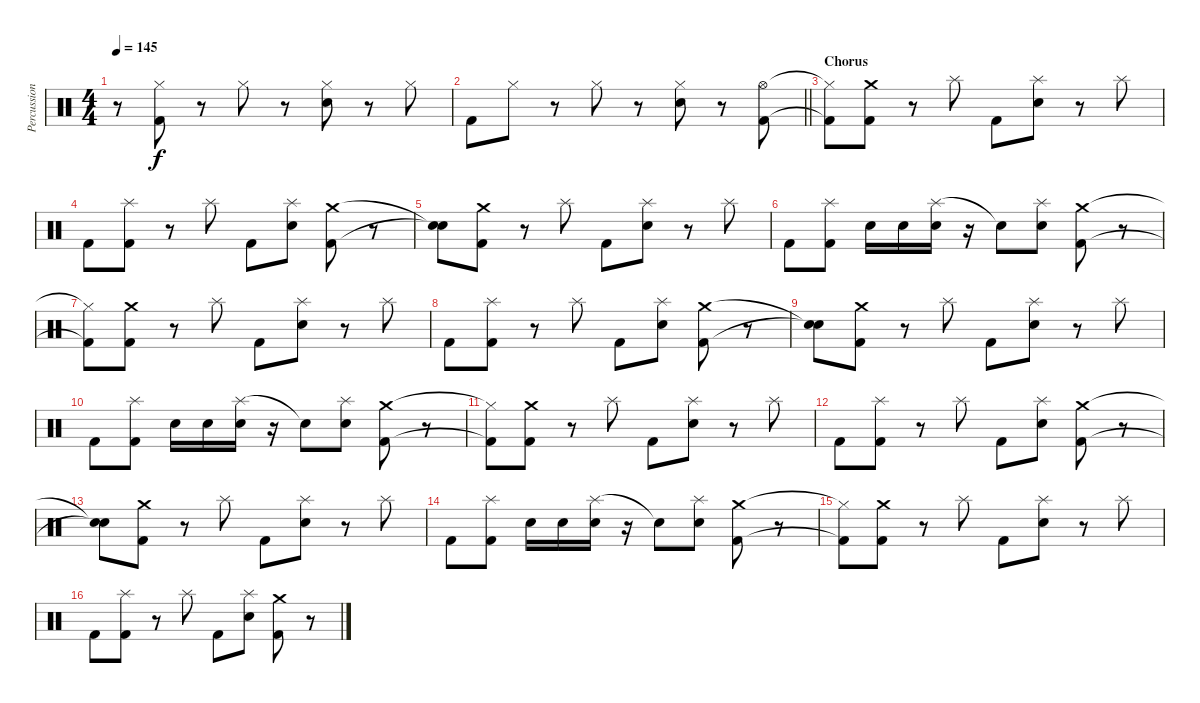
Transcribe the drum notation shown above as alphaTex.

\track ("Percussion" "Percussion") {instrument percussion}
\staff {score}
\articulation defaults
\ts (4 4)
\tempo 145
\clef neutral
\ks c
r.8{dy f} ("Hi-Hat (closed)" "Kick (hit) 2").8 r.8 "Hi-Hat (closed)".8 r.8 ("Hi-Hat (closed)" "Electric Snare (hit)").8 r.8 "Hi-Hat (closed)".8 |
\barLineRight lightlight "Kick (hit) 2".8 "Hi-Hat (closed)".8
r.8 "Hi-Hat (closed)".8 r.8 ("Hi-Hat (closed)" "Electric Snare (hit)").8 r.8 ("Hi-Hat (open)" "Kick (hit) 2").8 |
\section ("" "Chorus")
("Hi-Hat (closed)"{t} "Kick (hit) 2"{t}).8 ("Crash medium (hit)" "Kick (hit) 2").8 r.8 "Splash (hit)".8 "Kick (hit) 2".8 ("Splash (hit)" "Electric Snare (hit)").8 r.8 "Splash (hit)".8 |
"Kick (hit) 2".8 ("Splash (hit)" "Kick (hit) 2").8 r.8 "Splash (hit)".8 "Kick (hit) 2".8 ("Splash (hit)" "Electric Snare (hit)").8 ("Crash medium (hit)" "Kick (hit) 2").8 r.8 |
("Snare (hit)"{t} "Snare (hit)"{t}).8 ("Crash medium (hit)" "Kick (hit) 2").8 r.8 "Splash (hit)".8 "Kick (hit) 2".8 ("Splash (hit)" "Electric Snare (hit)").8 r.8 "Splash (hit)".8 |
"Kick (hit) 2".8 ("Splash (hit)" "Kick (hit) 2").8 "Electric Snare (hit)".16 "Electric Snare (hit)".16 ("Splash (hit)" "Electric Snare (hit)").16 r.16 "Snare (hit)"{t}.8 ("Splash (hit)" "Electric Snare (hit)").8 ("Crash medium (hit)" "Kick (hit) 2").8 r.8 |
("Hi-Hat (closed)"{t} "Kick (hit) 2"{t}).8 ("Crash medium (hit)" "Kick (hit) 2").8 r.8 "Splash (hit)".8 "Kick (hit) 2".8 ("Splash (hit)" "Electric Snare (hit)").8 r.8 "Splash (hit)".8 |
"Kick (hit) 2".8 ("Splash (hit)" "Kick (hit) 2").8 r.8 "Splash (hit)".8 "Kick (hit) 2".8 ("Splash (hit)" "Electric Snare (hit)").8 ("Crash medium (hit)" "Kick (hit) 2").8 r.8 |
("Snare (hit)"{t} "Snare (hit)"{t}).8 ("Crash medium (hit)" "Kick (hit) 2").8 r.8 "Splash (hit)".8 "Kick (hit) 2".8 ("Splash (hit)" "Electric Snare (hit)").8 r.8 "Splash (hit)".8 |
"Kick (hit) 2".8 ("Splash (hit)" "Kick (hit) 2").8 "Electric Snare (hit)".16 "Electric Snare (hit)".16 ("Splash (hit)" "Electric Snare (hit)").16 r.16 "Snare (hit)"{t}.8 ("Splash (hit)" "Electric Snare (hit)").8 ("Crash medium (hit)" "Kick (hit) 2").8 r.8 |
("Hi-Hat (closed)"{t} "Kick (hit) 2"{t}).8 ("Crash medium (hit)" "Kick (hit) 2").8 r.8 "Splash (hit)".8 "Kick (hit) 2".8 ("Splash (hit)" "Electric Snare (hit)").8 r.8 "Splash (hit)".8 |
"Kick (hit) 2".8 ("Splash (hit)" "Kick (hit) 2").8 r.8 "Splash (hit)".8 "Kick (hit) 2".8 ("Splash (hit)" "Electric Snare (hit)").8 ("Crash medium (hit)" "Kick (hit) 2").8 r.8 |
("Snare (hit)"{t} "Snare (hit)"{t}).8 ("Crash medium (hit)" "Kick (hit) 2").8 r.8 "Splash (hit)".8 "Kick (hit) 2".8 ("Splash (hit)" "Electric Snare (hit)").8 r.8 "Splash (hit)".8 |
"Kick (hit) 2".8 ("Splash (hit)" "Kick (hit) 2").8 "Electric Snare (hit)".16 "Electric Snare (hit)".16 ("Splash (hit)" "Electric Snare (hit)").16 r.16 "Snare (hit)"{t}.8 ("Splash (hit)" "Electric Snare (hit)").8 ("Crash medium (hit)" "Kick (hit) 2").8 r.8 |
("Hi-Hat (closed)"{t} "Kick (hit) 2"{t}).8 ("Crash medium (hit)" "Kick (hit) 2").8 r.8 "Splash (hit)".8 "Kick (hit) 2".8 ("Splash (hit)" "Electric Snare (hit)").8 r.8 "Splash (hit)".8 |
"Kick (hit) 2".8 ("Splash (hit)" "Kick (hit) 2").8 r.8 "Splash (hit)".8 "Kick (hit) 2".8 ("Splash (hit)" "Electric Snare (hit)").8 ("Crash medium (hit)" "Kick (hit) 2").8 r.8
